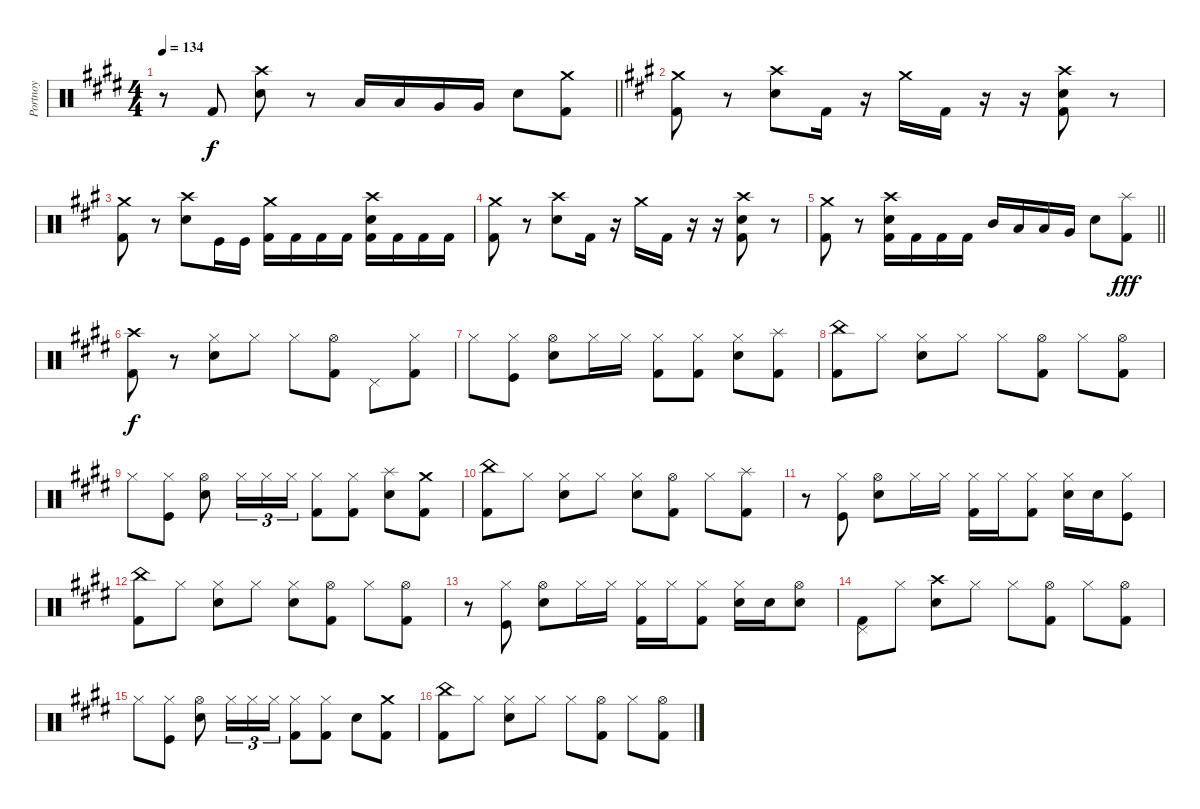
\track ("Portnoy" "Portnoy") {instrument percussion}
\staff {score}
\articulation defaults
\ts (4 4)
\tempo 134
\clef neutral
\barLineRight lightlight
\ks c#minor
r.8{dy f} "Kick (hit) 2".8 ("Snare (hit) 2" "Crash high (hit)").8 r.8 "Low Tom (hit)".16 "Low Tom (hit)".16 "Very Low Tom (hit)".16 "Very Low Tom (hit)".16 "Snare (hit) 2".8 ("Kick (hit) 2" "Crash medium (hit)").8 |
\ks f#minor
("Kick (hit) 2" "Crash medium (hit)").8 r.8 ("Crash high (hit)" "Snare (hit) 2").8 "Kick (hit) 2".16 r.16 "Crash medium (hit)".16 "Kick (hit) 2".16 r.16 r.16 ("Kick (hit) 2" "Crash high (hit)" "Snare (hit) 2").8 r.8 |
("Kick (hit) 2" "Crash medium (hit)").8 r.8 ("Crash high (hit)" "Snare (hit) 2").8 "Kick (hit)".16 "Kick (hit)".16 ("Kick (hit) 2" "Crash medium (hit)").16 "Kick (hit) 2".16 "Kick (hit) 2".16 "Kick (hit) 2".16 ("Kick (hit) 2" "Crash high (hit)" "Snare (hit) 2").16 "Kick (hit) 2".16 "Kick (hit) 2".16 "Kick (hit) 2".16 |
("Kick (hit) 2" "Crash medium (hit)").8 r.8 ("Crash high (hit)" "Snare (hit) 2").8 "Kick (hit) 2".16 r.16 "Crash medium (hit)".16 "Kick (hit) 2".16 r.16 r.16 ("Kick (hit) 2" "Crash high (hit)" "Snare (hit) 2").8 r.8 |
\barLineRight lightlight
("Kick (hit) 2" "Crash medium (hit)").8 r.8 ("Kick (hit) 2" "Crash high (hit)" "Snare (hit) 2").16 "Kick (hit) 2".16 "Kick (hit) 2".16 "Kick (hit) 2".16 "Mid Tom (hit)".16 "Low Tom (hit)".16 "Low Tom (hit)".16 "Very Low Tom (hit)".16 "Snare (hit) 2".8 ("Kick (hit) 2" "Splash (hit)").8{dy fff} |
\ks c#minor
("Kick (hit) 2" "Crash high (hit)").8{dy f} r.8 ("Snare (hit) 2" "Hi-Hat (closed)").8 "Hi-Hat (closed)".8 "Hi-Hat (closed)".8 ("Kick (hit) 2" "Hi-Hat (open)").8 "Pedal Hi-Hat (hit)".8 ("Kick (hit) 2" "Hi-Hat (closed)").8 |
"Hi-Hat (closed)".8 ("Kick (hit)" "Hi-Hat (closed)").8 ("Snare (hit) 2" "Hi-Hat (open)").8 "Hi-Hat (closed)".16 "Hi-Hat (closed)".16 ("Kick (hit) 2" "Hi-Hat (closed)").8 ("Kick (hit) 2" "Hi-Hat (closed)").8 ("Snare (hit) 2" "Hi-Hat (closed)").8 ("Kick (hit) 2" "Splash (hit)").8 |
("Kick (hit) 2" "China (hit)").8 "Hi-Hat (closed)".8 ("Snare (hit) 2" "Hi-Hat (closed)").8 "Hi-Hat (closed)".8 "Hi-Hat (closed)".8 ("Kick (hit) 2" "Hi-Hat (open)").8 "Hi-Hat (closed)".8 ("Kick (hit) 2" "Hi-Hat (open)").8 |
"Hi-Hat (closed)".8 ("Kick (hit)" "Hi-Hat (closed)").8 ("Snare (hit) 2" "Hi-Hat (open)").8 "Hi-Hat (closed)".16{tu (3 2)} "Hi-Hat (closed)".16{tu (3 2)} "Hi-Hat (closed)".16{tu (3 2)} ("Kick (hit) 2" "Hi-Hat (closed)").8 ("Kick (hit) 2" "Hi-Hat (closed)").8 ("Snare (hit) 2" "Splash (hit)").8 ("Kick (hit) 2" "Crash medium (hit)").8 |
("Kick (hit) 2" "China (hit)").8 "Hi-Hat (closed)".8 ("Snare (hit) 2" "Hi-Hat (closed)").8 "Hi-Hat (closed)".8 ("Hi-Hat (closed)" "Snare (hit) 2").8 ("Kick (hit) 2" "Hi-Hat (open)").8 "Hi-Hat (closed)".8 ("Kick (hit) 2" "Splash (hit)").8 |
r.8 ("Kick (hit)" "Hi-Hat (closed)").8 ("Snare (hit) 2" "Hi-Hat (open)").8 "Hi-Hat (closed)".16 "Hi-Hat (closed)".16 ("Kick (hit) 2" "Hi-Hat (closed)").16 "Hi-Hat (closed)".16 ("Kick (hit) 2" "Hi-Hat (closed)").8 ("Electric Snare (hit)" "Hi-Hat (closed)").16 "Electric Snare (hit)".16 ("Kick (hit)" "Hi-Hat (closed)").8 |
("Kick (hit) 2" "China (hit)").8 "Hi-Hat (closed)".8 ("Snare (hit) 2" "Hi-Hat (closed)").8 "Hi-Hat (closed)".8 ("Snare (hit) 2" "Hi-Hat (closed)").8 ("Kick (hit) 2" "Hi-Hat (open)").8 "Hi-Hat (closed)".8 ("Kick (hit) 2" "Hi-Hat (open)").8 |
r.8 ("Kick (hit)" "Hi-Hat (closed)").8 ("Snare (hit) 2" "Hi-Hat (open)").8 "Hi-Hat (closed)".16 "Hi-Hat (closed)".16 ("Kick (hit) 2" "Hi-Hat (closed)").16 "Hi-Hat (closed)".16 ("Kick (hit) 2" "Hi-Hat (closed)").8 ("Electric Snare (hit)" "Hi-Hat (closed)").16 "Electric Snare (hit)".16 ("Snare (hit) 2" "Hi-Hat (open)").8 |
("Kick (hit) 2" "Pedal Hi-Hat (hit)").8 "Hi-Hat (closed)".8 ("Snare (hit) 2" "Crash high (hit)").8 "Hi-Hat (closed)".8 "Hi-Hat (closed)".8 ("Kick (hit) 2" "Hi-Hat (open)").8 "Hi-Hat (closed)".8 ("Kick (hit) 2" "Hi-Hat (open)").8 |
"Hi-Hat (closed)".8 ("Kick (hit)" "Hi-Hat (closed)").8 ("Snare (hit) 2" "Hi-Hat (open)").8 "Hi-Hat (closed)".16{tu (3 2)} "Hi-Hat (closed)".16{tu (3 2)} "Hi-Hat (closed)".16{tu (3 2)} ("Kick (hit) 2" "Hi-Hat (closed)").8 ("Kick (hit) 2" "Hi-Hat (closed)").8 "Snare (hit) 2".8 ("Kick (hit) 2" "Crash medium (hit)").8 |
("Kick (hit) 2" "China (hit)").8 "Hi-Hat (closed)".8 ("Snare (hit) 2" "Hi-Hat (closed)").8 "Hi-Hat (closed)".8 "Hi-Hat (closed)".8 ("Kick (hit) 2" "Hi-Hat (open)").8 "Hi-Hat (closed)".8 ("Kick (hit) 2" "Hi-Hat (open)").8
